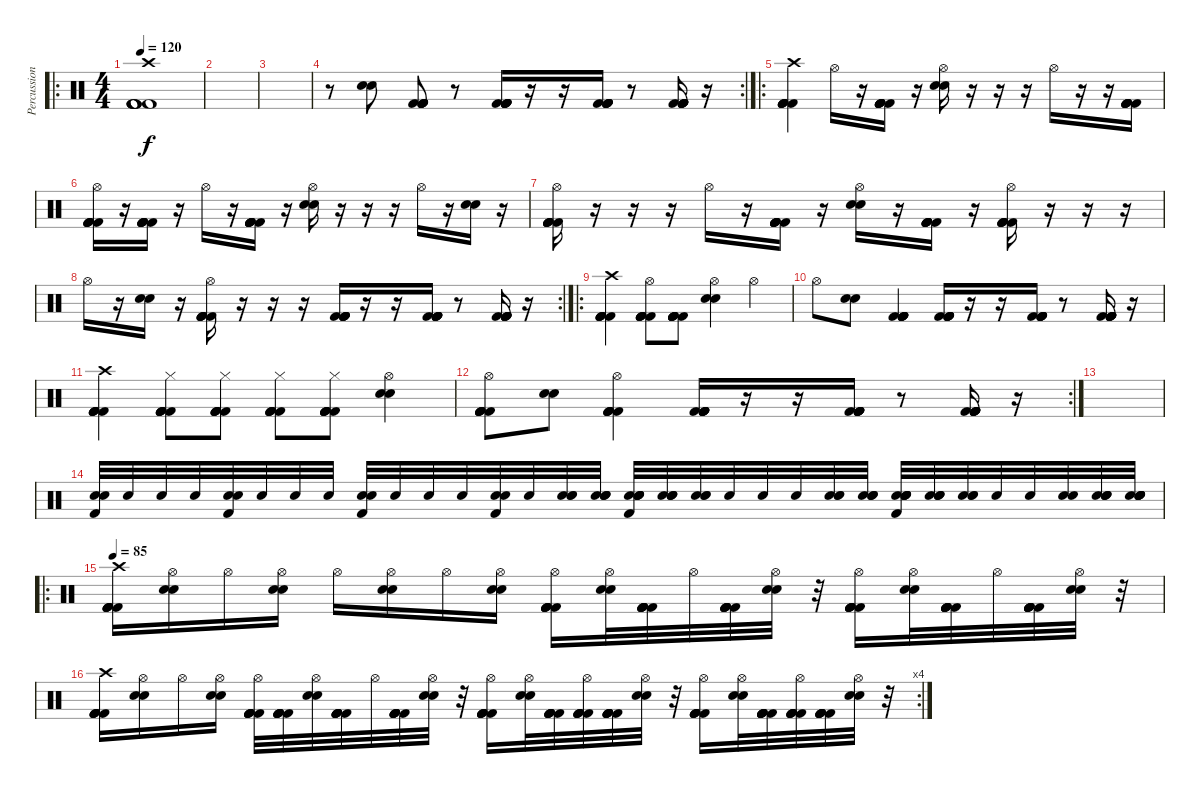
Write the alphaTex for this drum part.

\track ("Percussions" "Percussion") {instrument percussion}
\staff {score}
\articulation defaults
\ro
\ts (4 4)
\tempo 120
\tempo 100
\tempo 120
\clef neutral
\ks c
("Kick (hit) 2" "Kick (hit) 2" "Kick (hit) 2" "Kick (hit) 2" "Kick (hit) 2" "Crash high (hit)").1{dy f} |
|
|
\rc 2
r.8 ("Electric Snare (hit)" "Electric Snare (hit)").8 ("Kick (hit) 2" "Kick (hit) 2" "Kick (hit) 2" "Kick (hit) 2" "Kick (hit) 2" "Kick (hit) 2").8 r.8 ("Kick (hit) 2" "Kick (hit) 2" "Kick (hit) 2" "Kick (hit) 2" "Kick (hit) 2" "Kick (hit) 2").16 r.16 r.16 ("Kick (hit) 2" "Kick (hit) 2" "Kick (hit) 2" "Kick (hit) 2" "Kick (hit) 2" "Kick (hit) 2").16 r.8 ("Kick (hit) 2" "Kick (hit) 2" "Kick (hit) 2" "Kick (hit) 2" "Kick (hit) 2" "Kick (hit) 2").16 r.16 |
\ro
("Kick (hit) 2" "Kick (hit) 2" "Kick (hit) 2" "Kick (hit) 2" "Kick (hit) 2" "Crash high (hit)").4 "Hi-Hat (open)".16 r.16 ("Kick (hit) 2" "Kick (hit) 2" "Kick (hit) 2" "Kick (hit) 2" "Kick (hit) 2" "Kick (hit) 2").16 r.16 ("Electric Snare (hit)" "Electric Snare (hit)" "Hi-Hat (open)").16 r.16 r.16 r.16 "Hi-Hat (open)".16 r.16 r.16 ("Kick (hit) 2" "Kick (hit) 2" "Kick (hit) 2" "Kick (hit) 2" "Kick (hit) 2" "Kick (hit) 2").16 |
("Kick (hit) 2" "Kick (hit) 2" "Kick (hit) 2" "Kick (hit) 2" "Kick (hit) 2" "Hi-Hat (open)").16 r.16 ("Kick (hit) 2" "Kick (hit) 2" "Kick (hit) 2" "Kick (hit) 2" "Kick (hit) 2" "Kick (hit) 2").16 r.16 "Hi-Hat (open)".16 r.16 ("Kick (hit) 2" "Kick (hit) 2" "Kick (hit) 2" "Kick (hit) 2" "Kick (hit) 2" "Kick (hit) 2").16 r.16 ("Electric Snare (hit)" "Electric Snare (hit)" "Hi-Hat (open)").16 r.16 r.16 r.16 "Hi-Hat (open)".16 r.16 ("Electric Snare (hit)" "Electric Snare (hit)").16 r.16 |
("Kick (hit) 2" "Kick (hit) 2" "Kick (hit) 2" "Kick (hit) 2" "Kick (hit) 2" "Hi-Hat (open)").16 r.16 r.16 r.16 "Hi-Hat (open)".16 r.16 ("Kick (hit) 2" "Kick (hit) 2" "Kick (hit) 2" "Kick (hit) 2" "Kick (hit) 2" "Kick (hit) 2").16 r.16 ("Electric Snare (hit)" "Electric Snare (hit)" "Hi-Hat (open)").16 r.16 ("Kick (hit) 2" "Kick (hit) 2" "Kick (hit) 2" "Kick (hit) 2" "Kick (hit) 2" "Kick (hit) 2").16 r.16 ("Kick (hit) 2" "Kick (hit) 2" "Kick (hit) 2" "Kick (hit) 2" "Kick (hit) 2" "Hi-Hat (open)").16 r.16 r.16 r.16 |
\rc 2 "Hi-Hat (open)".16
r.16 ("Electric Snare (hit)" "Electric Snare (hit)").16 r.16 ("Kick (hit) 2" "Kick (hit) 2" "Kick (hit) 2" "Kick (hit) 2" "Kick (hit) 2" "Hi-Hat (open)").16 r.16 r.16 r.16 ("Kick (hit) 2" "Kick (hit) 2" "Kick (hit) 2" "Kick (hit) 2" "Kick (hit) 2" "Kick (hit) 2").16 r.16 r.16 ("Kick (hit) 2" "Kick (hit) 2" "Kick (hit) 2" "Kick (hit) 2" "Kick (hit) 2" "Kick (hit) 2").16 r.8 ("Kick (hit) 2" "Kick (hit) 2" "Kick (hit) 2" "Kick (hit) 2" "Kick (hit) 2" "Kick (hit) 2").16 r.16 |
\ro
("Kick (hit) 2" "Kick (hit) 2" "Kick (hit) 2" "Kick (hit) 2" "Kick (hit) 2" "Crash high (hit)").4 ("Kick (hit) 2" "Kick (hit) 2" "Kick (hit) 2" "Kick (hit) 2" "Kick (hit) 2" "Hi-Hat (open)").8 ("Kick (hit) 2" "Kick (hit) 2" "Kick (hit) 2" "Kick (hit) 2" "Kick (hit) 2" "Kick (hit) 2").8 ("Electric Snare (hit)" "Electric Snare (hit)" "Hi-Hat (open)").4 "Hi-Hat (open)".4 |
"Hi-Hat (open)".8 ("Electric Snare (hit)" "Electric Snare (hit)").8 ("Kick (hit) 2" "Kick (hit) 2" "Kick (hit) 2" "Kick (hit) 2" "Kick (hit) 2" "Kick (hit) 2").4 ("Kick (hit) 2" "Kick (hit) 2" "Kick (hit) 2" "Kick (hit) 2" "Kick (hit) 2" "Kick (hit) 2").16 r.16 r.16 ("Kick (hit) 2" "Kick (hit) 2" "Kick (hit) 2" "Kick (hit) 2" "Kick (hit) 2" "Kick (hit) 2").16 r.8 ("Kick (hit) 2" "Kick (hit) 2" "Kick (hit) 2" "Kick (hit) 2" "Kick (hit) 2" "Kick (hit) 2").16 r.16 |
("Kick (hit) 2" "Kick (hit) 2" "Kick (hit) 2" "Kick (hit) 2" "Kick (hit) 2" "Crash high (hit)").4 ("Kick (hit) 2" "Kick (hit) 2" "Kick (hit) 2" "Kick (hit) 2" "Kick (hit) 2" "Hi-Hat (closed)").8 ("Kick (hit) 2" "Kick (hit) 2" "Kick (hit) 2" "Kick (hit) 2" "Kick (hit) 2" "Hi-Hat (closed)").8 ("Kick (hit) 2" "Kick (hit) 2" "Kick (hit) 2" "Kick (hit) 2" "Kick (hit) 2" "Hi-Hat (closed)").8 ("Kick (hit) 2" "Kick (hit) 2" "Kick (hit) 2" "Kick (hit) 2" "Kick (hit) 2" "Hi-Hat (closed)").8 ("Electric Snare (hit)" "Electric Snare (hit)" "Hi-Hat (open)").4 |
\rc 2
("Kick (hit) 2" "Kick (hit) 2" "Kick (hit) 2" "Kick (hit) 2" "Kick (hit) 2" "Hi-Hat (open)").8 ("Electric Snare (hit)" "Electric Snare (hit)").8 ("Kick (hit) 2" "Kick (hit) 2" "Kick (hit) 2" "Kick (hit) 2" "Kick (hit) 2" "Hi-Hat (open)").4 ("Kick (hit) 2" "Kick (hit) 2" "Kick (hit) 2" "Kick (hit) 2" "Kick (hit) 2" "Kick (hit) 2").16 r.16 r.16 ("Kick (hit) 2" "Kick (hit) 2" "Kick (hit) 2" "Kick (hit) 2" "Kick (hit) 2" "Kick (hit) 2").16 r.8 ("Kick (hit) 2" "Kick (hit) 2" "Kick (hit) 2" "Kick (hit) 2" "Kick (hit) 2" "Kick (hit) 2").16 r.16 |
|
("Kick (hit) 2" "Electric Snare (hit)" "Electric Snare (hit)").32 "Electric Snare (hit)".32 "Electric Snare (hit)".32 "Electric Snare (hit)".32 ("Kick (hit) 2" "Electric Snare (hit)" "Electric Snare (hit)").32 "Electric Snare (hit)".32 "Electric Snare (hit)".32 "Electric Snare (hit)".32 ("Kick (hit) 2" "Electric Snare (hit)" "Electric Snare (hit)").32 "Electric Snare (hit)".32 "Electric Snare (hit)".32 "Electric Snare (hit)".32 ("Kick (hit) 2" "Electric Snare (hit)" "Electric Snare (hit)").32 "Electric Snare (hit)".32 ("Electric Snare (hit)" "Electric Snare (hit)" "Electric Snare (hit)").32 ("Electric Snare (hit)" "Electric Snare (hit)" "Electric Snare (hit)" "Electric Snare (hit)").32 ("Kick (hit) 2" "Electric Snare (hit)" "Electric Snare (hit)" "Electric Snare (hit)" "Electric Snare (hit)" "Electric Snare (hit)").32 ("Electric Snare (hit)" "Electric Snare (hit)" "Electric Snare (hit)" "Electric Snare (hit)").32 ("Electric Snare (hit)" "Electric Snare (hit)" "Electric Snare (hit)").32 "Electric Snare (hit)".32 "Electric Snare (hit)".32 "Electric Snare (hit)".32 ("Electric Snare (hit)" "Electric Snare (hit)" "Electric Snare (hit)").32 ("Electric Snare (hit)" "Electric Snare (hit)" "Electric Snare (hit)" "Electric Snare (hit)").32 ("Kick (hit) 2" "Electric Snare (hit)" "Electric Snare (hit)" "Electric Snare (hit)" "Electric Snare (hit)" "Electric Snare (hit)").32 ("Electric Snare (hit)" "Electric Snare (hit)" "Electric Snare (hit)" "Electric Snare (hit)").32 ("Electric Snare (hit)" "Electric Snare (hit)" "Electric Snare (hit)").32 "Electric Snare (hit)".32 "Electric Snare (hit)".32 ("Electric Snare (hit)" "Electric Snare (hit)").32 ("Electric Snare (hit)" "Electric Snare (hit)" "Electric Snare (hit)" "Electric Snare (hit)").32 ("Electric Snare (hit)" "Electric Snare (hit)" "Electric Snare (hit)" "Electric Snare (hit)" "Electric Snare (hit)" "Electric Snare (hit)").32 |
\ro
\tempo 85
("Kick (hit) 2" "Kick (hit) 2" "Kick (hit) 2" "Kick (hit) 2" "Kick (hit) 2" "Crash high (hit)").16 ("Electric Snare (hit)" "Electric Snare (hit)" "Hi-Hat (open)").16 "Hi-Hat (open)".16 ("Electric Snare (hit)" "Electric Snare (hit)" "Hi-Hat (open)").16 "Hi-Hat (open)".16 ("Electric Snare (hit)" "Electric Snare (hit)" "Hi-Hat (open)").16 "Hi-Hat (open)".16 ("Electric Snare (hit)" "Electric Snare (hit)" "Hi-Hat (open)").16 ("Kick (hit) 2" "Kick (hit) 2" "Kick (hit) 2" "Kick (hit) 2" "Kick (hit) 2" "Hi-Hat (open)").16 ("Electric Snare (hit)" "Electric Snare (hit)" "Hi-Hat (open)").32 ("Kick (hit) 2" "Kick (hit) 2" "Kick (hit) 2" "Kick (hit) 2" "Kick (hit) 2" "Kick (hit) 2").32 "Hi-Hat (open)".32 ("Kick (hit) 2" "Kick (hit) 2" "Kick (hit) 2" "Kick (hit) 2" "Kick (hit) 2" "Kick (hit) 2").32 ("Electric Snare (hit)" "Electric Snare (hit)" "Hi-Hat (open)").32 r.32 ("Kick (hit) 2" "Kick (hit) 2" "Kick (hit) 2" "Kick (hit) 2" "Kick (hit) 2" "Hi-Hat (open)").16 ("Electric Snare (hit)" "Electric Snare (hit)" "Hi-Hat (open)").32 ("Kick (hit) 2" "Kick (hit) 2" "Kick (hit) 2" "Kick (hit) 2" "Kick (hit) 2" "Kick (hit) 2").32 "Hi-Hat (open)".32 ("Kick (hit) 2" "Kick (hit) 2" "Kick (hit) 2" "Kick (hit) 2" "Kick (hit) 2" "Kick (hit) 2").32 ("Electric Snare (hit)" "Electric Snare (hit)" "Hi-Hat (open)").32 r.32 |
\rc 4
("Kick (hit) 2" "Kick (hit) 2" "Kick (hit) 2" "Kick (hit) 2" "Kick (hit) 2" "Crash high (hit)").16 ("Electric Snare (hit)" "Electric Snare (hit)" "Hi-Hat (open)").16 "Hi-Hat (open)".16 ("Electric Snare (hit)" "Electric Snare (hit)" "Hi-Hat (open)").16 ("Kick (hit) 2" "Kick (hit) 2" "Kick (hit) 2" "Kick (hit) 2" "Kick (hit) 2" "Hi-Hat (open)").32 ("Kick (hit) 2" "Kick (hit) 2" "Kick (hit) 2" "Kick (hit) 2" "Kick (hit) 2" "Kick (hit) 2").32 ("Electric Snare (hit)" "Electric Snare (hit)" "Hi-Hat (open)").32 ("Kick (hit) 2" "Kick (hit) 2" "Kick (hit) 2" "Kick (hit) 2" "Kick (hit) 2" "Kick (hit) 2").32 "Hi-Hat (open)".32 ("Kick (hit) 2" "Kick (hit) 2" "Kick (hit) 2" "Kick (hit) 2" "Kick (hit) 2" "Kick (hit) 2").32 ("Electric Snare (hit)" "Electric Snare (hit)" "Hi-Hat (open)").32 r.32 ("Kick (hit) 2" "Kick (hit) 2" "Kick (hit) 2" "Kick (hit) 2" "Kick (hit) 2" "Hi-Hat (open)").16 ("Electric Snare (hit)" "Electric Snare (hit)" "Hi-Hat (open)").32 ("Kick (hit) 2" "Kick (hit) 2" "Kick (hit) 2" "Kick (hit) 2" "Kick (hit) 2" "Kick (hit) 2").32 ("Kick (hit) 2" "Kick (hit) 2" "Kick (hit) 2" "Kick (hit) 2" "Kick (hit) 2" "Hi-Hat (open)").32 ("Kick (hit) 2" "Kick (hit) 2" "Kick (hit) 2" "Kick (hit) 2" "Kick (hit) 2" "Kick (hit) 2").32 ("Electric Snare (hit)" "Electric Snare (hit)" "Hi-Hat (open)").32 r.32 ("Kick (hit) 2" "Kick (hit) 2" "Kick (hit) 2" "Kick (hit) 2" "Kick (hit) 2" "Hi-Hat (open)").16 ("Electric Snare (hit)" "Electric Snare (hit)" "Hi-Hat (open)").32 ("Kick (hit) 2" "Kick (hit) 2" "Kick (hit) 2" "Kick (hit) 2" "Kick (hit) 2" "Kick (hit) 2").32 ("Kick (hit) 2" "Kick (hit) 2" "Kick (hit) 2" "Kick (hit) 2" "Kick (hit) 2" "Hi-Hat (open)").32 ("Kick (hit) 2" "Kick (hit) 2" "Kick (hit) 2" "Kick (hit) 2" "Kick (hit) 2" "Kick (hit) 2").32 ("Electric Snare (hit)" "Electric Snare (hit)" "Hi-Hat (open)").32 r.32
